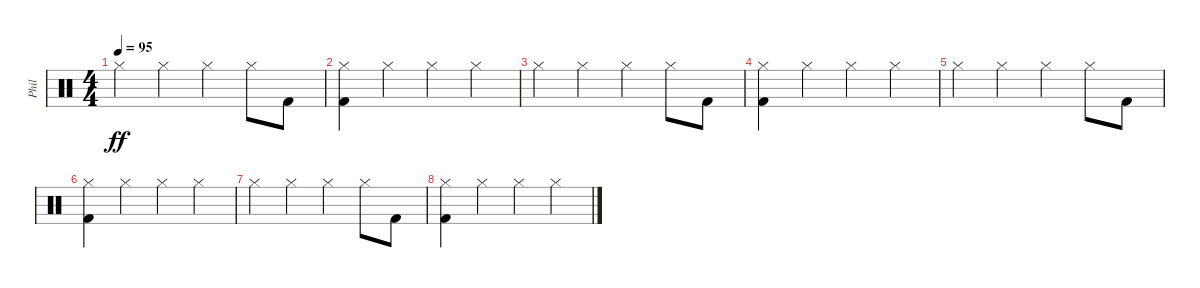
\track ("Phil" "Phil") {instrument percussion}
\staff {score}
\articulation defaults
\ts (4 4)
\tempo 95
\clef neutral
\ks c "Hi-Hat (closed)".4{dy ff} "Hi-Hat (closed)".4 "Hi-Hat (closed)".4 "Hi-Hat (closed)".8 "Kick (hit) 2".8
|
("Kick (hit) 2" "Hi-Hat (closed)").4 "Hi-Hat (closed)".4 "Hi-Hat (closed)".4 "Hi-Hat (closed)".4 |
"Hi-Hat (closed)".4 "Hi-Hat (closed)".4 "Hi-Hat (closed)".4 "Hi-Hat (closed)".8 "Kick (hit) 2".8 |
("Kick (hit) 2" "Hi-Hat (closed)").4 "Hi-Hat (closed)".4 "Hi-Hat (closed)".4 "Hi-Hat (closed)".4 |
"Hi-Hat (closed)".4 "Hi-Hat (closed)".4 "Hi-Hat (closed)".4 "Hi-Hat (closed)".8 "Kick (hit) 2".8 |
("Kick (hit) 2" "Hi-Hat (closed)").4 "Hi-Hat (closed)".4 "Hi-Hat (closed)".4 "Hi-Hat (closed)".4 |
"Hi-Hat (closed)".4 "Hi-Hat (closed)".4 "Hi-Hat (closed)".4 "Hi-Hat (closed)".8 "Kick (hit) 2".8 |
("Kick (hit) 2" "Hi-Hat (closed)").4 "Hi-Hat (closed)".4 "Hi-Hat (closed)".4 "Hi-Hat (closed)".4
